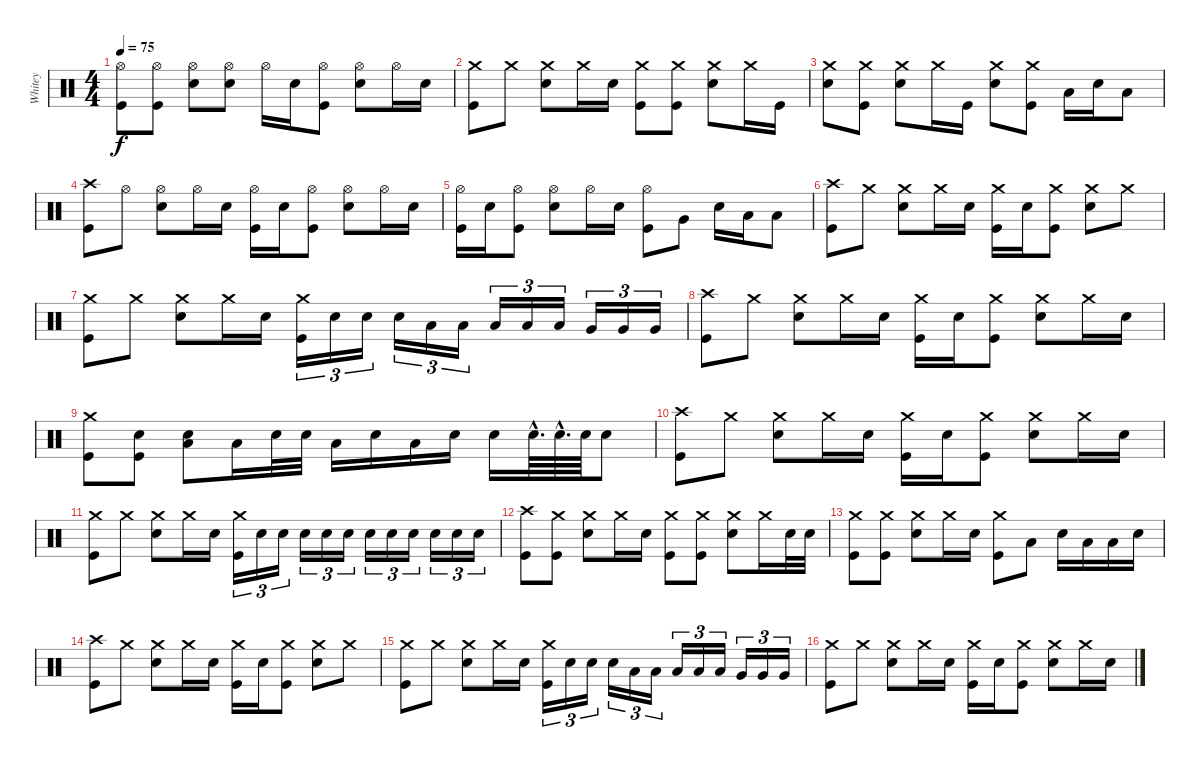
\track ("Whitey" "Whitey") {instrument percussion}
\staff {score}
\articulation defaults
\ts (4 4)
\tempo 75
\clef neutral
\ks c
("Hi-Hat (open)" "Kick (hit)").8{dy f} ("Hi-Hat (open)" "Kick (hit)").8 ("Hi-Hat (open)" "Snare (hit) 2").8 ("Hi-Hat (open)" "Snare (hit) 2").8 "Hi-Hat (open)".16 "Snare (hit) 2".16 ("Hi-Hat (open)" "Kick (hit)").8 ("Hi-Hat (open)" "Snare (hit) 2").8 "Hi-Hat (open)".16 "Snare (hit) 2".16 |
("Crash medium (hit)" "Kick (hit)").8 "Crash medium (hit)".8 ("Crash medium (hit)" "Snare (hit) 2").8 "Crash medium (hit)".16 "Snare (hit) 2".16 ("Crash medium (hit)" "Kick (hit)").8 ("Crash medium (hit)" "Kick (hit)").8 ("Crash medium (hit)" "Snare (hit) 2").8 "Crash medium (hit)".16 "Kick (hit)".16 |
("Crash medium (hit)" "Snare (hit) 2").8 ("Crash medium (hit)" "Kick (hit)").8 ("Crash medium (hit)" "Snare (hit) 2").8 "Crash medium (hit)".16 "Kick (hit)".16 ("Crash medium (hit)" "Snare (hit) 2").8 ("Crash medium (hit)" "Kick (hit)").8 "Low Tom (hit)".16 "Snare (hit) 2".16 "Low Tom (hit)".8 |
("Crash high (hit)" "Kick (hit)").8 "Hi-Hat (open)".8 ("Hi-Hat (open)" "Snare (hit) 2").8 "Hi-Hat (open)".16 "Snare (hit) 2".16 ("Hi-Hat (open)" "Kick (hit)").16 "Snare (hit) 2".16 ("Hi-Hat (open)" "Kick (hit)").8 ("Hi-Hat (open)" "Snare (hit) 2").8 "Hi-Hat (open)".16 "Snare (hit) 2".16 |
("Hi-Hat (open)" "Kick (hit)").16 "Snare (hit) 2".16 ("Hi-Hat (open)" "Kick (hit)").8 ("Hi-Hat (open)" "Snare (hit) 2").8 "Hi-Hat (open)".16 "Snare (hit) 2".16 ("Hi-Hat (open)" "Kick (hit)").8 "Very Low Tom (hit)".8 "Snare (hit) 2".16 "Low Tom (hit)".16 "Low Tom (hit)".8 |
("Crash high (hit)" "Kick (hit)").8 "Crash medium (hit)".8 ("Crash medium (hit)" "Snare (hit) 2").8 "Crash medium (hit)".16 "Snare (hit) 2".16 ("Crash medium (hit)" "Kick (hit)").16 "Snare (hit) 2".16 ("Crash medium (hit)" "Kick (hit)").8 ("Crash medium (hit)" "Snare (hit) 2").8 "Crash medium (hit)".8 |
("Crash medium (hit)" "Kick (hit)").8 "Crash medium (hit)".8 ("Crash medium (hit)" "Snare (hit) 2").8 "Crash medium (hit)".16 "Snare (hit) 2".16 ("Crash medium (hit)" "Kick (hit)").16{tu (3 2)} "Snare (hit) 2".16{tu (3 2)} "Snare (hit) 2".16{tu (3 2)} "Snare (hit) 2".16{tu (3 2)} "Low Tom (hit)".16{tu (3 2)} "Low Tom (hit)".16{tu (3 2)} "Low Tom (hit)".16{tu (3 2)} "Low Tom (hit)".16{tu (3 2)} "Low Tom (hit)".16{tu (3 2)} "Very Low Tom (hit)".16{tu (3 2)} "Very Low Tom (hit)".16{tu (3 2)} "Very Low Tom (hit)".16{tu (3 2)} |
("Crash high (hit)" "Kick (hit)").8 "Crash medium (hit)".8 ("Crash medium (hit)" "Snare (hit) 2").8 "Crash medium (hit)".16 "Snare (hit) 2".16 ("Crash medium (hit)" "Kick (hit)").16 "Snare (hit) 2".16 ("Crash medium (hit)" "Kick (hit)").8 ("Crash medium (hit)" "Snare (hit) 2").8 "Crash medium (hit)".16 "Snare (hit) 2".16 |
("Crash medium (hit)" "Kick (hit)").8 ("Snare (hit) 2" "Kick (hit)").8 ("Low Tom (hit)" "Snare (hit) 2").8 "Low Tom (hit)".16 "Snare (hit) 2".32 "Snare (hit) 2".32 "Low Tom (hit)".16 "Snare (hit) 2".16 "Low Tom (hit)".16 "Snare (hit) 2".16 "Snare (hit) 2".16 "Snare (hit) 2"{hac}.64{d} "Snare (hit) 2"{hac}.64{d} "Snare (hit) 2".64 "Snare (hit) 2".8 |
("Crash high (hit)" "Kick (hit)").8 "Crash medium (hit)".8 ("Crash medium (hit)" "Snare (hit) 2").8 "Crash medium (hit)".16 "Snare (hit) 2".16 ("Crash medium (hit)" "Kick (hit)").16 "Snare (hit) 2".16 ("Crash medium (hit)" "Kick (hit)").8 ("Crash medium (hit)" "Snare (hit) 2").8 "Crash medium (hit)".16 "Snare (hit) 2".16 |
("Crash medium (hit)" "Kick (hit)").8 "Crash medium (hit)".8 ("Crash medium (hit)" "Snare (hit) 2").8 "Crash medium (hit)".16 "Snare (hit) 2".16 ("Crash medium (hit)" "Kick (hit)").16{tu (3 2)} "Snare (hit) 2".16{tu (3 2)} "Snare (hit) 2".16{tu (3 2)} "Snare (hit) 2".16{tu (3 2)} "Snare (hit) 2".16{tu (3 2)} "Snare (hit) 2".16{tu (3 2)} "Snare (hit) 2".16{tu (3 2)} "Snare (hit) 2".16{tu (3 2)} "Snare (hit) 2".16{tu (3 2)} "Snare (hit) 2".16{tu (3 2)} "Snare (hit) 2".16{tu (3 2)} "Snare (hit) 2".16{tu (3 2)} |
("Crash high (hit)" "Kick (hit)").8 ("Crash medium (hit)" "Kick (hit)").8 ("Crash medium (hit)" "Snare (hit) 2").8 "Crash medium (hit)".16 "Snare (hit) 2".16 ("Crash medium (hit)" "Kick (hit)").8 ("Crash medium (hit)" "Kick (hit)").8 ("Crash medium (hit)" "Snare (hit) 2").8 "Crash medium (hit)".16 "Snare (hit) 2".32 "Snare (hit) 2".32 |
("Crash medium (hit)" "Kick (hit)").8 ("Crash medium (hit)" "Kick (hit)").8 ("Crash medium (hit)" "Snare (hit) 2").8 "Crash medium (hit)".16 "Snare (hit) 2".16 ("Crash medium (hit)" "Kick (hit)").8 "Low Tom (hit)".8 "Snare (hit) 2".16 "Low Tom (hit)".16 "Low Tom (hit)".16 "Snare (hit) 2".16 |
("Crash high (hit)" "Kick (hit)").8 "Crash medium (hit)".8 ("Crash medium (hit)" "Snare (hit) 2").8 "Crash medium (hit)".16 "Snare (hit) 2".16 ("Crash medium (hit)" "Kick (hit)").16 "Snare (hit) 2".16 ("Crash medium (hit)" "Kick (hit)").8 ("Crash medium (hit)" "Snare (hit) 2").8 "Crash medium (hit)".8 |
("Crash medium (hit)" "Kick (hit)").8 "Crash medium (hit)".8 ("Crash medium (hit)" "Snare (hit) 2").8 "Crash medium (hit)".16 "Snare (hit) 2".16 ("Crash medium (hit)" "Kick (hit)").16{tu (3 2)} "Snare (hit) 2".16{tu (3 2)} "Snare (hit) 2".16{tu (3 2)} "Snare (hit) 2".16{tu (3 2)} "Low Tom (hit)".16{tu (3 2)} "Low Tom (hit)".16{tu (3 2)} "Low Tom (hit)".16{tu (3 2)} "Low Tom (hit)".16{tu (3 2)} "Low Tom (hit)".16{tu (3 2)} "Very Low Tom (hit)".16{tu (3 2)} "Very Low Tom (hit)".16{tu (3 2)} "Very Low Tom (hit)".16{tu (3 2)} |
("Crash medium (hit)" "Kick (hit)").8 "Crash medium (hit)".8 ("Crash medium (hit)" "Snare (hit) 2").8 "Crash medium (hit)".16 "Snare (hit) 2".16 ("Crash medium (hit)" "Kick (hit)").16 "Snare (hit) 2".16 ("Crash medium (hit)" "Kick (hit)").8 ("Crash medium (hit)" "Snare (hit) 2").8 "Crash medium (hit)".16 "Snare (hit) 2".16
